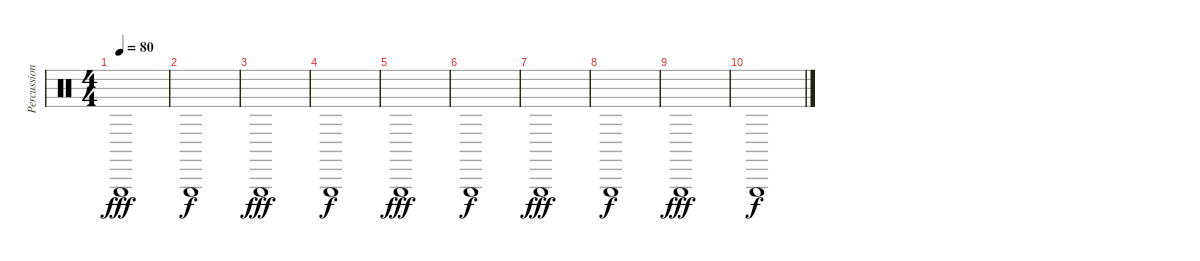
\track ("Percussion" "Percussion") {instrument percussion}
\staff {score}
\articulation defaults
\ts (4 4)
\tempo 80
\clef neutral
\ks c "Triangle (hit)".1{dy fff}
|
"Triangle (hit)".1{dy f} |
"Triangle (hit)".1{dy fff} |
"Triangle (hit)".1{dy f} |
"Triangle (hit)".1{dy fff volume 5} |
"Triangle (hit)".1{dy f} |
"Triangle (hit)".1{dy fff} |
"Triangle (hit)".1{dy f} |
"Triangle (hit)".1{dy fff volume 0} |
"Triangle (hit)".1{dy f}
